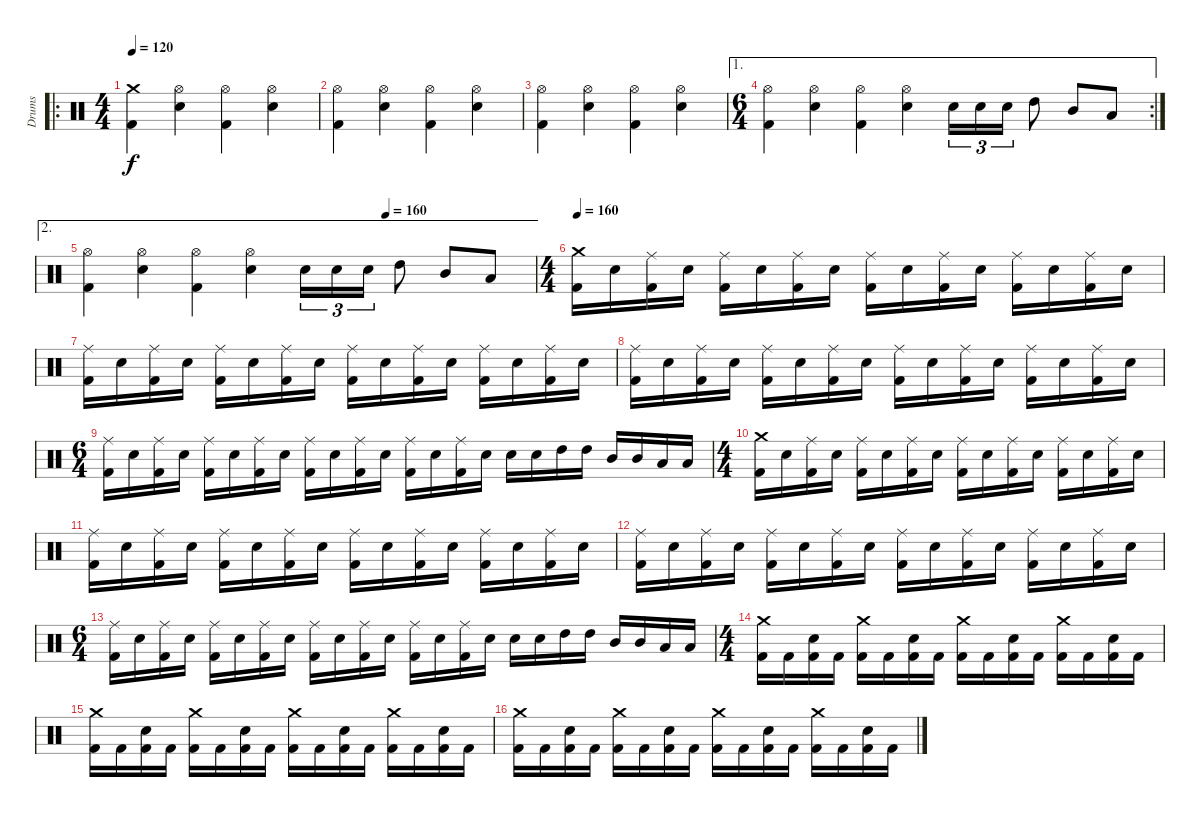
\track ("Drums" "Drums") {instrument percussion}
\staff {score}
\articulation defaults
\ro
\ts (4 4)
\tempo 120
\clef neutral
\ks c
("Kick (hit) 2" "Crash medium (hit)").4{dy f} ("Electric Snare (hit)" "Hi-Hat (open)").4 ("Kick (hit) 2" "Hi-Hat (open)").4 ("Electric Snare (hit)" "Hi-Hat (open)").4 |
("Kick (hit) 2" "Hi-Hat (open)").4 ("Electric Snare (hit)" "Hi-Hat (open)").4 ("Kick (hit) 2" "Hi-Hat (open)").4 ("Electric Snare (hit)" "Hi-Hat (open)").4 |
("Kick (hit) 2" "Hi-Hat (open)").4 ("Electric Snare (hit)" "Hi-Hat (open)").4 ("Kick (hit) 2" "Hi-Hat (open)").4 ("Electric Snare (hit)" "Hi-Hat (open)").4 |
\ae 1
\rc 2
\ts (6 4)
("Kick (hit) 2" "Hi-Hat (open)").4 ("Electric Snare (hit)" "Hi-Hat (open)").4 ("Kick (hit) 2" "Hi-Hat (open)").4 ("Electric Snare (hit)" "Hi-Hat (open)").4 "Electric Snare (hit)".16{tu (3 2)} "Electric Snare (hit)".16{tu (3 2)} "Electric Snare (hit)".16{tu (3 2)} "High Tom (hit)".8 "Mid Tom (hit)".8 "Low Tom (hit)".8 |
\ae 2
\tempo (160 0.6666666666666666)
("Kick (hit) 2" "Hi-Hat (open)").4 ("Electric Snare (hit)" "Hi-Hat (open)").4 ("Kick (hit) 2" "Hi-Hat (open)").4 ("Electric Snare (hit)" "Hi-Hat (open)").4 "Electric Snare (hit)".16{tu (3 2)} "Electric Snare (hit)".16{tu (3 2)} "Electric Snare (hit)".16{tu (3 2)} "High Tom (hit)".8 "Mid Tom (hit)".8 "Low Tom (hit)".8 |
\ts (4 4)
\tempo 160
("Kick (hit) 2" "Crash medium (hit)").16 "Electric Snare (hit)".16 ("Kick (hit) 2" "Ride (middle)").16 "Electric Snare (hit)".16 ("Kick (hit) 2" "Ride (middle)").16 "Electric Snare (hit)".16 ("Kick (hit) 2" "Ride (middle)").16 "Electric Snare (hit)".16 ("Kick (hit) 2" "Ride (middle)").16 "Electric Snare (hit)".16 ("Kick (hit) 2" "Ride (middle)").16 "Electric Snare (hit)".16 ("Kick (hit) 2" "Ride (middle)").16 "Electric Snare (hit)".16 ("Kick (hit) 2" "Ride (middle)").16 "Electric Snare (hit)".16 |
("Kick (hit) 2" "Ride (middle)").16 "Electric Snare (hit)".16 ("Kick (hit) 2" "Ride (middle)").16 "Electric Snare (hit)".16 ("Kick (hit) 2" "Ride (middle)").16 "Electric Snare (hit)".16 ("Kick (hit) 2" "Ride (middle)").16 "Electric Snare (hit)".16 ("Kick (hit) 2" "Ride (middle)").16 "Electric Snare (hit)".16 ("Kick (hit) 2" "Ride (middle)").16 "Electric Snare (hit)".16 ("Kick (hit) 2" "Ride (middle)").16 "Electric Snare (hit)".16 ("Kick (hit) 2" "Ride (middle)").16 "Electric Snare (hit)".16 |
("Kick (hit) 2" "Ride (middle)").16 "Electric Snare (hit)".16 ("Kick (hit) 2" "Ride (middle)").16 "Electric Snare (hit)".16 ("Kick (hit) 2" "Ride (middle)").16 "Electric Snare (hit)".16 ("Kick (hit) 2" "Ride (middle)").16 "Electric Snare (hit)".16 ("Kick (hit) 2" "Ride (middle)").16 "Electric Snare (hit)".16 ("Kick (hit) 2" "Ride (middle)").16 "Electric Snare (hit)".16 ("Kick (hit) 2" "Ride (middle)").16 "Electric Snare (hit)".16 ("Kick (hit) 2" "Ride (middle)").16 "Electric Snare (hit)".16 |
\ts (6 4)
("Kick (hit) 2" "Ride (middle)").16 "Electric Snare (hit)".16 ("Kick (hit) 2" "Ride (middle)").16 "Electric Snare (hit)".16 ("Kick (hit) 2" "Ride (middle)").16 "Electric Snare (hit)".16 ("Kick (hit) 2" "Ride (middle)").16 "Electric Snare (hit)".16 ("Kick (hit) 2" "Ride (middle)").16 "Electric Snare (hit)".16 ("Kick (hit) 2" "Ride (middle)").16 "Electric Snare (hit)".16 ("Kick (hit) 2" "Ride (middle)").16 "Electric Snare (hit)".16 ("Kick (hit) 2" "Ride (middle)").16 "Electric Snare (hit)".16 "Electric Snare (hit)".16 "Electric Snare (hit)".16 "High Tom (hit)".16 "High Tom (hit)".16 "Mid Tom (hit)".16 "Mid Tom (hit)".16 "Low Tom (hit)".16 "Low Tom (hit)".16 |
\ts (4 4)
("Kick (hit) 2" "Crash medium (hit)").16 "Electric Snare (hit)".16 ("Kick (hit) 2" "Ride (middle)").16 "Electric Snare (hit)".16 ("Kick (hit) 2" "Ride (middle)").16 "Electric Snare (hit)".16 ("Kick (hit) 2" "Ride (middle)").16 "Electric Snare (hit)".16 ("Kick (hit) 2" "Ride (middle)").16 "Electric Snare (hit)".16 ("Kick (hit) 2" "Ride (middle)").16 "Electric Snare (hit)".16 ("Kick (hit) 2" "Ride (middle)").16 "Electric Snare (hit)".16 ("Kick (hit) 2" "Ride (middle)").16 "Electric Snare (hit)".16 |
("Kick (hit) 2" "Ride (middle)").16 "Electric Snare (hit)".16 ("Kick (hit) 2" "Ride (middle)").16 "Electric Snare (hit)".16 ("Kick (hit) 2" "Ride (middle)").16 "Electric Snare (hit)".16 ("Kick (hit) 2" "Ride (middle)").16 "Electric Snare (hit)".16 ("Kick (hit) 2" "Ride (middle)").16 "Electric Snare (hit)".16 ("Kick (hit) 2" "Ride (middle)").16 "Electric Snare (hit)".16 ("Kick (hit) 2" "Ride (middle)").16 "Electric Snare (hit)".16 ("Kick (hit) 2" "Ride (middle)").16 "Electric Snare (hit)".16 |
("Kick (hit) 2" "Ride (middle)").16 "Electric Snare (hit)".16 ("Kick (hit) 2" "Ride (middle)").16 "Electric Snare (hit)".16 ("Kick (hit) 2" "Ride (middle)").16 "Electric Snare (hit)".16 ("Kick (hit) 2" "Ride (middle)").16 "Electric Snare (hit)".16 ("Kick (hit) 2" "Ride (middle)").16 "Electric Snare (hit)".16 ("Kick (hit) 2" "Ride (middle)").16 "Electric Snare (hit)".16 ("Kick (hit) 2" "Ride (middle)").16 "Electric Snare (hit)".16 ("Kick (hit) 2" "Ride (middle)").16 "Electric Snare (hit)".16 |
\ts (6 4)
("Kick (hit) 2" "Ride (middle)").16 "Electric Snare (hit)".16 ("Kick (hit) 2" "Ride (middle)").16 "Electric Snare (hit)".16 ("Kick (hit) 2" "Ride (middle)").16 "Electric Snare (hit)".16 ("Kick (hit) 2" "Ride (middle)").16 "Electric Snare (hit)".16 ("Kick (hit) 2" "Ride (middle)").16 "Electric Snare (hit)".16 ("Kick (hit) 2" "Ride (middle)").16 "Electric Snare (hit)".16 ("Kick (hit) 2" "Ride (middle)").16 "Electric Snare (hit)".16 ("Kick (hit) 2" "Ride (middle)").16 "Electric Snare (hit)".16 "Electric Snare (hit)".16 "Electric Snare (hit)".16 "High Tom (hit)".16 "High Tom (hit)".16 "Mid Tom (hit)".16 "Mid Tom (hit)".16 "Low Tom (hit)".16 "Low Tom (hit)".16 |
\ts (4 4)
("Kick (hit) 2" "Crash medium (hit)").16 "Kick (hit) 2".16 ("Kick (hit) 2" "Electric Snare (hit)").16 "Kick (hit) 2".16 ("Kick (hit) 2" "Crash medium (hit)").16 "Kick (hit) 2".16 ("Kick (hit) 2" "Electric Snare (hit)").16 "Kick (hit) 2".16 ("Kick (hit) 2" "Crash medium (hit)").16 "Kick (hit) 2".16 ("Kick (hit) 2" "Electric Snare (hit)").16 "Kick (hit) 2".16 ("Kick (hit) 2" "Crash medium (hit)").16 "Kick (hit) 2".16 ("Kick (hit) 2" "Electric Snare (hit)").16 "Kick (hit) 2".16 |
("Kick (hit) 2" "Crash medium (hit)").16 "Kick (hit) 2".16 ("Kick (hit) 2" "Electric Snare (hit)").16 "Kick (hit) 2".16 ("Kick (hit) 2" "Crash medium (hit)").16 "Kick (hit) 2".16 ("Kick (hit) 2" "Electric Snare (hit)").16 "Kick (hit) 2".16 ("Kick (hit) 2" "Crash medium (hit)").16 "Kick (hit) 2".16 ("Kick (hit) 2" "Electric Snare (hit)").16 "Kick (hit) 2".16 ("Kick (hit) 2" "Crash medium (hit)").16 "Kick (hit) 2".16 ("Kick (hit) 2" "Electric Snare (hit)").16 "Kick (hit) 2".16 |
("Kick (hit) 2" "Crash medium (hit)").16 "Kick (hit) 2".16 ("Kick (hit) 2" "Electric Snare (hit)").16 "Kick (hit) 2".16 ("Kick (hit) 2" "Crash medium (hit)").16 "Kick (hit) 2".16 ("Kick (hit) 2" "Electric Snare (hit)").16 "Kick (hit) 2".16 ("Kick (hit) 2" "Crash medium (hit)").16 "Kick (hit) 2".16 ("Kick (hit) 2" "Electric Snare (hit)").16 "Kick (hit) 2".16 ("Kick (hit) 2" "Crash medium (hit)").16 "Kick (hit) 2".16 ("Kick (hit) 2" "Electric Snare (hit)").16 "Kick (hit) 2".16
